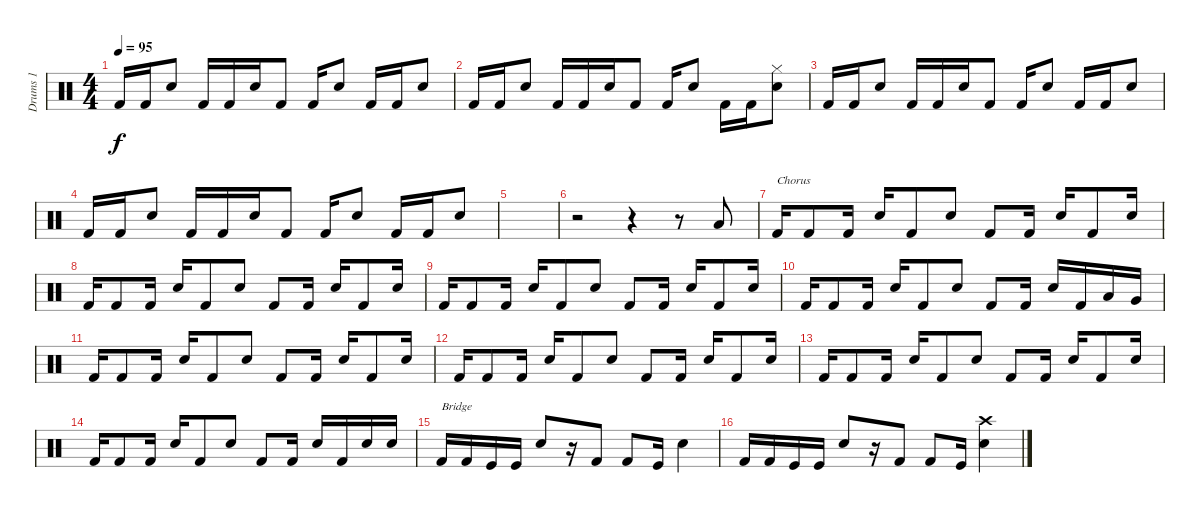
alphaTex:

\track ("Drums 1" "Drums 1") {instrument percussion}
\staff {score}
\articulation defaults
\ts (4 4)
\tempo 95
\clef neutral
\ks c "Kick (hit) 2".16{dy f} "Kick (hit) 2".16 "Snare (hit) 2".8 "Kick (hit) 2".16 "Kick (hit) 2".16 "Snare (hit) 2".16 "Kick (hit) 2".8 "Kick (hit) 2".16 "Snare (hit) 2".8 "Kick (hit) 2".16 "Kick (hit) 2".16 "Snare (hit) 2".8
|
"Kick (hit) 2".16 "Kick (hit) 2".16 "Snare (hit) 2".8 "Kick (hit) 2".16 "Kick (hit) 2".16 "Snare (hit) 2".16 "Kick (hit) 2".8 "Kick (hit) 2".16 "Snare (hit) 2".8 "Kick (hit) 2".16 "Kick (hit) 2".16 ("Snare (hit) 2" "Hi-Hat (closed)").8 |
"Kick (hit) 2".16 "Kick (hit) 2".16 "Snare (hit) 2".8 "Kick (hit) 2".16 "Kick (hit) 2".16 "Snare (hit) 2".16 "Kick (hit) 2".8 "Kick (hit) 2".16 "Snare (hit) 2".8 "Kick (hit) 2".16 "Kick (hit) 2".16 "Snare (hit) 2".8 |
"Kick (hit) 2".16 "Kick (hit) 2".16 "Snare (hit) 2".8 "Kick (hit) 2".16 "Kick (hit) 2".16 "Snare (hit) 2".16 "Kick (hit) 2".8 "Kick (hit) 2".16 "Snare (hit) 2".8 "Kick (hit) 2".16 "Kick (hit) 2".16 "Snare (hit) 2".8 |
|
r.2 r.4 r.8 "Low Floor Tom (hit)".8 |
"Kick (hit) 2".16{txt "Chorus"} "Kick (hit) 2".8 "Kick (hit) 2".16 "Snare (hit) 2".16 "Kick (hit) 2".8 "Snare (hit) 2".8 "Kick (hit) 2".8 "Kick (hit) 2".16 "Snare (hit) 2".16 "Kick (hit) 2".8 "Snare (hit) 2".16 |
"Kick (hit) 2".16 "Kick (hit) 2".8 "Kick (hit) 2".16 "Snare (hit) 2".16 "Kick (hit) 2".8 "Snare (hit) 2".8 "Kick (hit) 2".8 "Kick (hit) 2".16 "Snare (hit) 2".16 "Kick (hit) 2".8 "Snare (hit) 2".16 |
"Kick (hit) 2".16 "Kick (hit) 2".8 "Kick (hit) 2".16 "Snare (hit) 2".16 "Kick (hit) 2".8 "Snare (hit) 2".8 "Kick (hit) 2".8 "Kick (hit) 2".16 "Snare (hit) 2".16 "Kick (hit) 2".8 "Snare (hit) 2".16 |
"Kick (hit) 2".16 "Kick (hit) 2".8 "Kick (hit) 2".16 "Snare (hit) 2".16 "Kick (hit) 2".8 "Snare (hit) 2".8 "Kick (hit) 2".8 "Kick (hit) 2".16 "Snare (hit) 2".16 "Kick (hit) 2".16 "Low Tom (hit)".16 "Very Low Tom (hit)".16 |
"Kick (hit) 2".16 "Kick (hit) 2".8 "Kick (hit) 2".16 "Snare (hit) 2".16 "Kick (hit) 2".8 "Snare (hit) 2".8 "Kick (hit) 2".8 "Kick (hit) 2".16 "Snare (hit) 2".16 "Kick (hit) 2".8 "Snare (hit) 2".16 |
"Kick (hit) 2".16 "Kick (hit) 2".8 "Kick (hit) 2".16 "Snare (hit) 2".16 "Kick (hit) 2".8 "Snare (hit) 2".8 "Kick (hit) 2".8 "Kick (hit) 2".16 "Snare (hit) 2".16 "Kick (hit) 2".8 "Snare (hit) 2".16 |
"Kick (hit) 2".16 "Kick (hit) 2".8 "Kick (hit) 2".16 "Snare (hit) 2".16 "Kick (hit) 2".8 "Snare (hit) 2".8 "Kick (hit) 2".8 "Kick (hit) 2".16 "Snare (hit) 2".16 "Kick (hit) 2".8 "Snare (hit) 2".16 |
"Kick (hit) 2".16 "Kick (hit) 2".8 "Kick (hit) 2".16 "Snare (hit) 2".16 "Kick (hit) 2".8 "Snare (hit) 2".8 "Kick (hit) 2".8 "Kick (hit) 2".16 "Snare (hit) 2".16 "Kick (hit) 2".16 "Snare (hit) 2".16 "Snare (hit) 2".16 |
"Kick (hit) 2".16{txt "Bridge"} "Kick (hit) 2".16 "Kick (hit)".16 "Kick (hit)".16 "Snare (hit) 2".8 r.16 "Kick (hit) 2".8 "Kick (hit) 2".8 "Kick (hit)".16 "Snare (hit) 2".4 |
"Kick (hit) 2".16 "Kick (hit) 2".16 "Kick (hit)".16 "Kick (hit)".16 "Snare (hit) 2".8 r.16 "Kick (hit) 2".8 "Kick (hit) 2".8 "Kick (hit)".16 ("Snare (hit) 2" "Crash high (hit)").4
